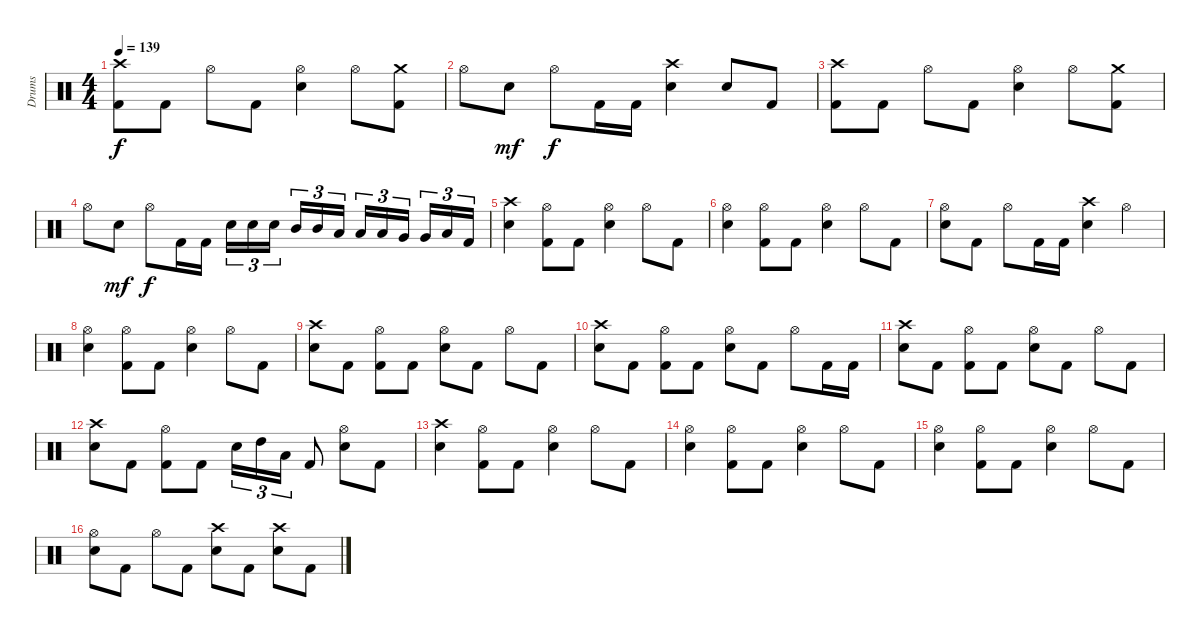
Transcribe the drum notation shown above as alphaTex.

\track ("Drums" "Drums") {instrument percussion}
\staff {score}
\articulation defaults
\ts (4 4)
\tempo 139
\clef neutral
\ks c
("Crash high (hit)" "Kick (hit) 2").8{dy f} "Kick (hit) 2".8 "Hi-Hat (open)".8 "Kick (hit) 2".8 ("Hi-Hat (open)" "Snare (hit) 2").4 "Hi-Hat (open)".8 ("Crash medium (hit)" "Kick (hit) 2").8 |
"Hi-Hat (open)".8 "Snare (hit) 2".8{dy mf} "Hi-Hat (open)".8{dy f} "Kick (hit) 2".16 "Kick (hit) 2".16 ("Crash high (hit)" "Snare (hit) 2").4 "Snare (hit) 2".8 "Kick (hit) 2".8 |
("Crash high (hit)" "Kick (hit) 2").8 "Kick (hit) 2".8 "Hi-Hat (open)".8 "Kick (hit) 2".8 ("Hi-Hat (open)" "Snare (hit) 2").4 "Hi-Hat (open)".8 ("Crash medium (hit)" "Kick (hit) 2").8 |
"Hi-Hat (open)".8 "Snare (hit) 2".8{dy mf} "Hi-Hat (open)".8{dy f} "Kick (hit) 2".16 "Kick (hit) 2".16 "Snare (hit) 2".16{tu (3 2)} "Snare (hit) 2".16{tu (3 2)} "Snare (hit) 2".16{tu (3 2) beam splitsecondary} "Mid Tom (hit)".16{tu (3 2)} "Mid Tom (hit)".16{tu (3 2)} "Low Tom (hit)".16{tu (3 2)} "Low Tom (hit)".16{tu (3 2)} "Low Tom (hit)".16{tu (3 2)} "Very Low Tom (hit)".16{tu (3 2) beam splitsecondary} "Very Low Tom (hit)".16{tu (3 2)} "Low Floor Tom (hit)".16{tu (3 2)} "Kick (hit) 2".16{tu (3 2)} |
("Crash high (hit)" "Snare (hit) 2").4 ("Hi-Hat (open)" "Kick (hit) 2").8 "Kick (hit) 2".8 ("Hi-Hat (open)" "Snare (hit) 2").4 "Hi-Hat (open)".8 "Kick (hit) 2".8 |
("Hi-Hat (open)" "Snare (hit) 2").4 ("Hi-Hat (open)" "Kick (hit) 2").8 "Kick (hit) 2".8 ("Hi-Hat (open)" "Snare (hit) 2").4 "Hi-Hat (open)".8 "Kick (hit) 2".8 |
("Hi-Hat (open)" "Snare (hit) 2").8 "Kick (hit) 2".8 "Hi-Hat (open)".8 "Kick (hit) 2".16 "Kick (hit) 2".16 ("Crash high (hit)" "Snare (hit) 2").4 "Hi-Hat (open)".4 |
("Hi-Hat (open)" "Snare (hit) 2").4 ("Hi-Hat (open)" "Kick (hit) 2").8 "Kick (hit) 2".8 ("Hi-Hat (open)" "Snare (hit) 2").4 "Hi-Hat (open)".8 "Kick (hit) 2".8 |
("Crash high (hit)" "Snare (hit) 2").8 "Kick (hit) 2".8 ("Hi-Hat (open)" "Kick (hit) 2").8 "Kick (hit) 2".8 ("Hi-Hat (open)" "Snare (hit) 2").8 "Kick (hit) 2".8 "Hi-Hat (open)".8 "Kick (hit) 2".8 |
("Crash high (hit)" "Snare (hit) 2").8 "Kick (hit) 2".8 ("Hi-Hat (open)" "Kick (hit) 2").8 "Kick (hit) 2".8 ("Hi-Hat (open)" "Snare (hit) 2").8 "Kick (hit) 2".8 "Hi-Hat (open)".8 "Kick (hit) 2".16 "Kick (hit) 2".16 |
("Crash high (hit)" "Snare (hit) 2").8 "Kick (hit) 2".8 ("Hi-Hat (open)" "Kick (hit) 2").8 "Kick (hit) 2".8 ("Hi-Hat (open)" "Snare (hit) 2").8 "Kick (hit) 2".8 "Hi-Hat (open)".8 "Kick (hit) 2".8 |
("Crash high (hit)" "Snare (hit) 2").8 "Kick (hit) 2".8 ("Hi-Hat (open)" "Kick (hit) 2").8 "Kick (hit) 2".8 "Snare (hit) 2".16{tu (3 2)} "High Tom (hit)".16{tu (3 2)} "Low Tom (hit)".16{tu (3 2)} "Kick (hit) 2".8 ("Hi-Hat (open)" "Snare (hit) 2").8 "Kick (hit) 2".8 |
("Crash high (hit)" "Snare (hit) 2").4 ("Hi-Hat (open)" "Kick (hit) 2").8 "Kick (hit) 2".8 ("Hi-Hat (open)" "Snare (hit) 2").4 "Hi-Hat (open)".8 "Kick (hit) 2".8 |
("Hi-Hat (open)" "Snare (hit) 2").4 ("Hi-Hat (open)" "Kick (hit) 2").8 "Kick (hit) 2".8 ("Hi-Hat (open)" "Snare (hit) 2").4 "Hi-Hat (open)".8 "Kick (hit) 2".8 |
("Hi-Hat (open)" "Snare (hit) 2").4 ("Hi-Hat (open)" "Kick (hit) 2").8 "Kick (hit) 2".8 ("Hi-Hat (open)" "Snare (hit) 2").4 "Hi-Hat (open)".8 "Kick (hit) 2".8 |
("Hi-Hat (open)" "Snare (hit) 2").8 "Kick (hit) 2".8 "Hi-Hat (open)".8 "Kick (hit) 2".8 ("Crash high (hit)" "Snare (hit) 2").8 "Kick (hit) 2".8 ("Crash high (hit)" "Snare (hit) 2").8 "Kick (hit) 2".8
